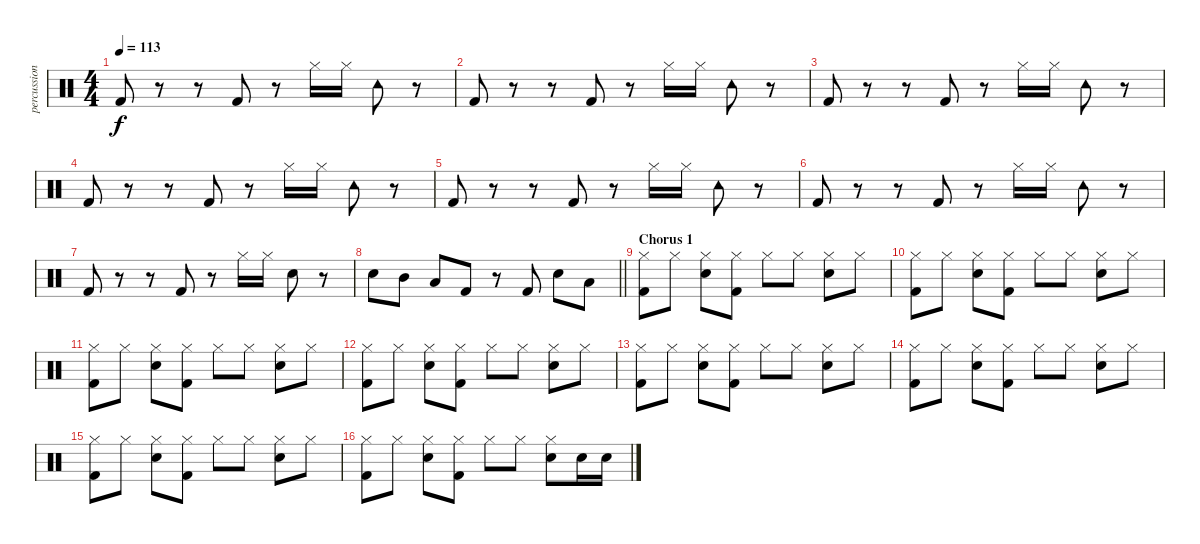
\track ("percussion" "percussion") {instrument percussion}
\staff {score}
\articulation defaults
\ts (4 4)
\tempo 113
\clef neutral
\ks c "Kick (hit) 2".8{dy f}
r.8 r.8 "Kick (hit) 2".8 r.8 "Hi-Hat (closed)".16 "Hi-Hat (closed)".16 "Tambourine (hit)".8 r.8 |
"Kick (hit) 2".8 r.8 r.8 "Kick (hit) 2".8 r.8 "Hi-Hat (closed)".16 "Hi-Hat (closed)".16 "Tambourine (hit)".8 r.8 |
"Kick (hit) 2".8 r.8 r.8 "Kick (hit) 2".8 r.8 "Hi-Hat (closed)".16 "Hi-Hat (closed)".16 "Tambourine (hit)".8 r.8 |
"Kick (hit) 2".8 r.8 r.8 "Kick (hit) 2".8 r.8 "Hi-Hat (closed)".16 "Hi-Hat (closed)".16 "Tambourine (hit)".8 r.8 |
"Kick (hit) 2".8 r.8 r.8 "Kick (hit) 2".8 r.8 "Hi-Hat (closed)".16 "Hi-Hat (closed)".16 "Tambourine (hit)".8 r.8 |
"Kick (hit) 2".8 r.8 r.8 "Kick (hit) 2".8 r.8 "Hi-Hat (closed)".16 "Hi-Hat (closed)".16 "Tambourine (hit)".8 r.8 |
"Kick (hit) 2".8 r.8 r.8 "Kick (hit) 2".8 r.8 "Hi-Hat (closed)".16 "Hi-Hat (closed)".16 "Snare (hit) 2".8 r.8 |
\barLineRight lightlight "Snare (hit) 2".8 "Mid Tom (hit)".8 "Low Tom (hit)".8 "Kick (hit) 2".8
r.8 "Kick (hit) 2".8 "Snare (hit) 2".8 "Low Tom (hit)".8 |
\section ("" "Chorus 1")
("Hi-Hat (closed)" "Kick (hit) 2").8 "Hi-Hat (closed)".8 ("Snare (hit) 2" "Hi-Hat (closed)").8 ("Hi-Hat (closed)" "Kick (hit) 2").8 "Hi-Hat (closed)".8 "Hi-Hat (closed)".8 ("Snare (hit) 2" "Hi-Hat (closed)").8 "Hi-Hat (closed)".8 |
("Hi-Hat (closed)" "Kick (hit) 2").8 "Hi-Hat (closed)".8 ("Snare (hit) 2" "Hi-Hat (closed)").8 ("Hi-Hat (closed)" "Kick (hit) 2").8 "Hi-Hat (closed)".8 "Hi-Hat (closed)".8 ("Snare (hit) 2" "Hi-Hat (closed)").8 "Hi-Hat (closed)".8 |
("Hi-Hat (closed)" "Kick (hit) 2").8 "Hi-Hat (closed)".8 ("Snare (hit) 2" "Hi-Hat (closed)").8 ("Hi-Hat (closed)" "Kick (hit) 2").8 "Hi-Hat (closed)".8 "Hi-Hat (closed)".8 ("Snare (hit) 2" "Hi-Hat (closed)").8 "Hi-Hat (closed)".8 |
("Hi-Hat (closed)" "Kick (hit) 2").8 "Hi-Hat (closed)".8 ("Snare (hit) 2" "Hi-Hat (closed)").8 ("Hi-Hat (closed)" "Kick (hit) 2").8 "Hi-Hat (closed)".8 "Hi-Hat (closed)".8 ("Snare (hit) 2" "Hi-Hat (closed)").8 "Hi-Hat (closed)".8 |
("Hi-Hat (closed)" "Kick (hit) 2").8 "Hi-Hat (closed)".8 ("Snare (hit) 2" "Hi-Hat (closed)").8 ("Hi-Hat (closed)" "Kick (hit) 2").8 "Hi-Hat (closed)".8 "Hi-Hat (closed)".8 ("Snare (hit) 2" "Hi-Hat (closed)").8 "Hi-Hat (closed)".8 |
("Hi-Hat (closed)" "Kick (hit) 2").8 "Hi-Hat (closed)".8 ("Snare (hit) 2" "Hi-Hat (closed)").8 ("Hi-Hat (closed)" "Kick (hit) 2").8 "Hi-Hat (closed)".8 "Hi-Hat (closed)".8 ("Snare (hit) 2" "Hi-Hat (closed)").8 "Hi-Hat (closed)".8 |
("Hi-Hat (closed)" "Kick (hit) 2").8 "Hi-Hat (closed)".8 ("Snare (hit) 2" "Hi-Hat (closed)").8 ("Hi-Hat (closed)" "Kick (hit) 2").8 "Hi-Hat (closed)".8 "Hi-Hat (closed)".8 ("Snare (hit) 2" "Hi-Hat (closed)").8 "Hi-Hat (closed)".8 |
("Hi-Hat (closed)" "Kick (hit) 2").8 "Hi-Hat (closed)".8 ("Snare (hit) 2" "Hi-Hat (closed)").8 ("Hi-Hat (closed)" "Kick (hit) 2").8 "Hi-Hat (closed)".8 "Hi-Hat (closed)".8 ("Snare (hit) 2" "Hi-Hat (closed)").8 "Snare (hit) 2".16 "Snare (hit) 2".16
